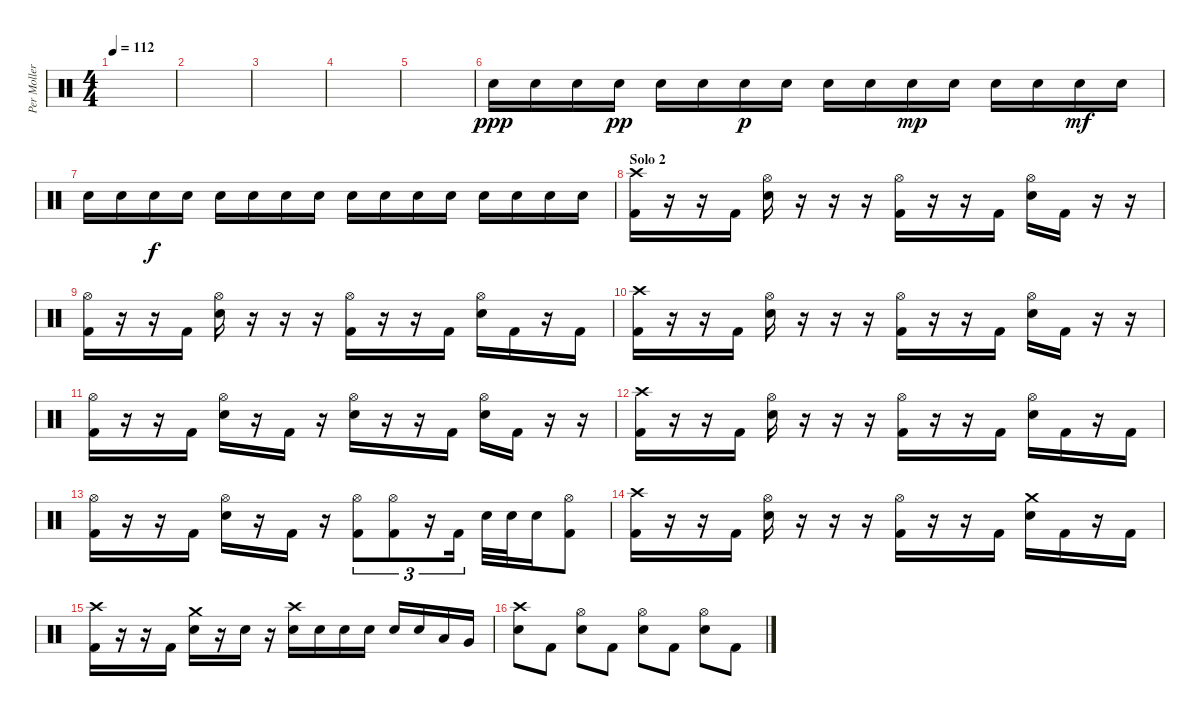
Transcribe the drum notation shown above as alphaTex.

\track ("Per Moller Jensen" "Per Moller") {instrument percussion}
\staff {score}
\articulation defaults
\ts (4 4)
\tempo 112
\clef neutral
\ks c
|
|
|
|
|
"Electric Snare (hit)".16{dy ppp} "Electric Snare (hit)".16 "Electric Snare (hit)".16 "Electric Snare (hit)".16{dy pp} "Electric Snare (hit)".16 "Electric Snare (hit)".16 "Electric Snare (hit)".16{dy p} "Electric Snare (hit)".16 "Electric Snare (hit)".16 "Electric Snare (hit)".16 "Electric Snare (hit)".16{dy mp} "Electric Snare (hit)".16 "Electric Snare (hit)".16 "Electric Snare (hit)".16 "Electric Snare (hit)".16{dy mf} "Electric Snare (hit)".16 |
"Electric Snare (hit)".16 "Electric Snare (hit)".16 "Electric Snare (hit)".16{dy f} "Electric Snare (hit)".16 "Electric Snare (hit)".16 "Electric Snare (hit)".16 "Electric Snare (hit)".16 "Electric Snare (hit)".16 "Electric Snare (hit)".16 "Electric Snare (hit)".16 "Electric Snare (hit)".16 "Electric Snare (hit)".16 "Electric Snare (hit)".16 "Electric Snare (hit)".16 "Electric Snare (hit)".16 "Electric Snare (hit)".16 |
\section ("" "Solo 2")
("Crash high (hit)" "Kick (hit) 2").16 r.16 r.16 "Kick (hit) 2".16 ("Hi-Hat (open)" "Electric Snare (hit)").16 r.16 r.16 r.16 ("Hi-Hat (open)" "Kick (hit) 2").16 r.16 r.16 "Kick (hit) 2".16 ("Hi-Hat (open)" "Electric Snare (hit)").16 "Kick (hit) 2".16 r.16 r.16 |
("Hi-Hat (open)" "Kick (hit) 2").16 r.16 r.16 "Kick (hit) 2".16 ("Hi-Hat (open)" "Electric Snare (hit)").16 r.16 r.16 r.16 ("Hi-Hat (open)" "Kick (hit) 2").16 r.16 r.16 "Kick (hit) 2".16 ("Hi-Hat (open)" "Electric Snare (hit)").16 "Kick (hit) 2".16 r.16 "Kick (hit) 2".16 |
("Crash high (hit)" "Kick (hit) 2").16 r.16 r.16 "Kick (hit) 2".16 ("Hi-Hat (open)" "Electric Snare (hit)").16 r.16 r.16 r.16 ("Hi-Hat (open)" "Kick (hit) 2").16 r.16 r.16 "Kick (hit) 2".16 ("Hi-Hat (open)" "Electric Snare (hit)").16 "Kick (hit) 2".16 r.16 r.16 |
("Hi-Hat (open)" "Kick (hit) 2").16 r.16 r.16 "Kick (hit) 2".16 ("Hi-Hat (open)" "Electric Snare (hit)").16 r.16 "Kick (hit) 2".16 r.16 ("Hi-Hat (open)" "Electric Snare (hit)").16 r.16 r.16 "Kick (hit) 2".16 ("Hi-Hat (open)" "Electric Snare (hit)").16 "Kick (hit) 2".16 r.16 r.16 |
("Crash high (hit)" "Kick (hit) 2").16 r.16 r.16 "Kick (hit) 2".16 ("Hi-Hat (open)" "Electric Snare (hit)").16 r.16 r.16 r.16 ("Hi-Hat (open)" "Kick (hit) 2").16 r.16 r.16 "Kick (hit) 2".16 ("Hi-Hat (open)" "Electric Snare (hit)").16 "Kick (hit) 2".16 r.16 "Kick (hit) 2".16 |
("Hi-Hat (open)" "Kick (hit) 2").16 r.16 r.16 "Kick (hit) 2".16 ("Hi-Hat (open)" "Electric Snare (hit)").16 r.16 "Kick (hit) 2".16 r.16 ("Hi-Hat (open)" "Kick (hit) 2").8{tu (3 2)} ("Hi-Hat (open)" "Kick (hit) 2").8{tu (3 2)} r.16{tu (3 2)} "Kick (hit) 2".16{tu (3 2)} "Electric Snare (hit)".32 "Electric Snare (hit)".32 "Electric Snare (hit)".16 ("Hi-Hat (open)" "Kick (hit) 2").8 |
("Crash high (hit)" "Kick (hit) 2").16 r.16 r.16 "Kick (hit) 2".16 ("Hi-Hat (open)" "Electric Snare (hit)").16 r.16 r.16 r.16 ("Hi-Hat (open)" "Kick (hit) 2").16 r.16 r.16 "Kick (hit) 2".16 ("Crash medium (hit)" "Electric Snare (hit)").16 "Kick (hit) 2".16 r.16 "Kick (hit) 2".16 |
("Crash high (hit)" "Kick (hit) 2").16 r.16 r.16 "Kick (hit) 2".16 ("Crash medium (hit)" "Electric Snare (hit)").16 r.16 "Electric Snare (hit)".16 r.16 ("Crash high (hit)" "Electric Snare (hit)").16 "Electric Snare (hit)".16 "Electric Snare (hit)".16 "Electric Snare (hit)".16 "Electric Snare (hit)".16 "Electric Snare (hit)".16 "Low Tom (hit)".16 "Very Low Tom (hit)".16 |
("Crash high (hit)" "Electric Snare (hit)").8 "Kick (hit) 2".8 ("Hi-Hat (open)" "Electric Snare (hit)").8 "Kick (hit) 2".8 ("Hi-Hat (open)" "Electric Snare (hit)").8 "Kick (hit) 2".8 ("Hi-Hat (open)" "Electric Snare (hit)").8 "Kick (hit) 2".8
